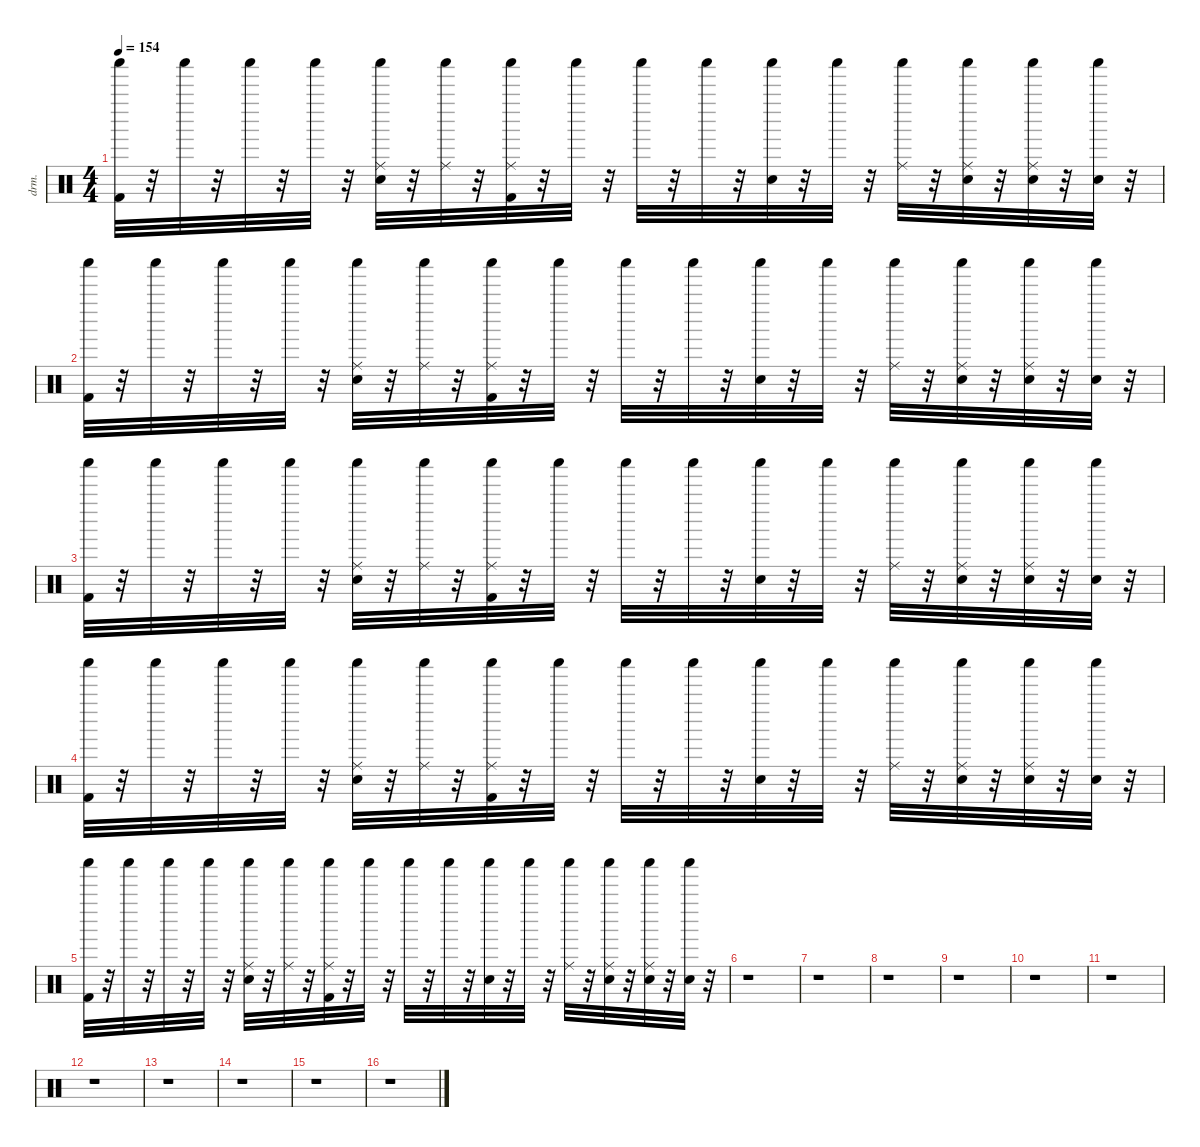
\defaultSystemsLayout 4
\hideDynamics
\bracketExtendMode nobrackets
\otherSystemsTrackNameOrientation horizontal
\track ("Percussion" "drm.") {instrument percussion}
\staff {score}
\articulation defaults
\ts (4 4)
\tempo 154
\clef neutral
\ks c
("Shaker (hit)" "Kick (hit) 2").32{dy f beam Down} r.32{beam Down} "Shaker (hit)".32{beam Down} r.32{beam Down} "Shaker (hit)".32{beam Down} r.32{beam Down} "Shaker (hit)".32{beam Down} r.32{beam Down} ("Shaker (hit)" "Snare (hit) 2" "Ride (middle)").32{beam Down} r.32{beam Down} ("Shaker (hit)" "Ride (middle)").32{beam Down} r.32{beam Down} ("Shaker (hit)" "Kick (hit) 2" "Ride (middle)").32{beam Down} r.32{beam Down} "Shaker (hit)".32{beam Down} r.32{beam Down} "Shaker (hit)".32{beam Down} r.32{beam Down} "Shaker (hit)".32{beam Down} r.32{beam Down} ("Shaker (hit)" "Snare (hit) 2").32{beam Down} r.32{beam Down} "Shaker (hit)".32{beam Down} r.32{beam Down} ("Shaker (hit)" "Ride (middle)").32{beam Down} r.32{beam Down} ("Shaker (hit)" "Snare (hit) 2" "Ride (middle)").32{beam Down} r.32{beam Down} ("Shaker (hit)" "Snare (hit) 2" "Ride (middle)").32{beam Down} r.32{beam Down} ("Shaker (hit)" "Snare (hit) 2").32{beam Down} r.32{beam Down} |
("Shaker (hit)" "Kick (hit) 2").32{beam Down} r.32{beam Down} "Shaker (hit)".32{beam Down} r.32{beam Down} "Shaker (hit)".32{beam Down} r.32{beam Down} "Shaker (hit)".32{beam Down} r.32{beam Down} ("Shaker (hit)" "Snare (hit) 2" "Ride (middle)").32{beam Down} r.32{beam Down} ("Shaker (hit)" "Ride (middle)").32{beam Down} r.32{beam Down} ("Shaker (hit)" "Kick (hit) 2" "Ride (middle)").32{beam Down} r.32{beam Down} "Shaker (hit)".32{beam Down} r.32{beam Down} "Shaker (hit)".32{beam Down} r.32{beam Down} "Shaker (hit)".32{beam Down} r.32{beam Down} ("Shaker (hit)" "Snare (hit) 2").32{beam Down} r.32{beam Down} "Shaker (hit)".32{beam Down} r.32{beam Down} ("Shaker (hit)" "Ride (middle)").32{beam Down} r.32{beam Down} ("Shaker (hit)" "Snare (hit) 2" "Ride (middle)").32{beam Down} r.32{beam Down} ("Shaker (hit)" "Snare (hit) 2" "Ride (middle)").32{beam Down} r.32{beam Down} ("Shaker (hit)" "Snare (hit) 2").32{beam Down} r.32{beam Down} |
("Shaker (hit)" "Kick (hit) 2").32{beam Down} r.32{beam Down} "Shaker (hit)".32{beam Down} r.32{beam Down} "Shaker (hit)".32{beam Down} r.32{beam Down} "Shaker (hit)".32{beam Down} r.32{beam Down} ("Shaker (hit)" "Snare (hit) 2" "Ride (middle)").32{beam Down} r.32{beam Down} ("Shaker (hit)" "Ride (middle)").32{beam Down} r.32{beam Down} ("Shaker (hit)" "Kick (hit) 2" "Ride (middle)").32{beam Down} r.32{beam Down} "Shaker (hit)".32{beam Down} r.32{beam Down} "Shaker (hit)".32{beam Down} r.32{beam Down} "Shaker (hit)".32{beam Down} r.32{beam Down} ("Shaker (hit)" "Snare (hit) 2").32{beam Down} r.32{beam Down} "Shaker (hit)".32{beam Down} r.32{beam Down} ("Shaker (hit)" "Ride (middle)").32{beam Down} r.32{beam Down} ("Shaker (hit)" "Snare (hit) 2" "Ride (middle)").32{beam Down} r.32{beam Down} ("Shaker (hit)" "Snare (hit) 2" "Ride (middle)").32{beam Down} r.32{beam Down} ("Shaker (hit)" "Snare (hit) 2").32{beam Down} r.32{beam Down} |
("Shaker (hit)" "Kick (hit) 2").32{beam Down} r.32{beam Down} "Shaker (hit)".32{beam Down} r.32{beam Down} "Shaker (hit)".32{beam Down} r.32{beam Down} "Shaker (hit)".32{beam Down} r.32{beam Down} ("Shaker (hit)" "Snare (hit) 2" "Ride (middle)").32{beam Down} r.32{beam Down} ("Shaker (hit)" "Ride (middle)").32{beam Down} r.32{beam Down} ("Shaker (hit)" "Kick (hit) 2" "Ride (middle)").32{beam Down} r.32{beam Down} "Shaker (hit)".32{beam Down} r.32{beam Down} "Shaker (hit)".32{beam Down} r.32{beam Down} "Shaker (hit)".32{beam Down} r.32{beam Down} ("Shaker (hit)" "Snare (hit) 2").32{beam Down} r.32{beam Down} "Shaker (hit)".32{beam Down} r.32{beam Down} ("Shaker (hit)" "Ride (middle)").32{beam Down} r.32{beam Down} ("Shaker (hit)" "Snare (hit) 2" "Ride (middle)").32{beam Down} r.32{beam Down} ("Shaker (hit)" "Snare (hit) 2" "Ride (middle)").32{beam Down} r.32{beam Down} ("Shaker (hit)" "Snare (hit) 2").32{beam Down} r.32{beam Down} |
("Shaker (hit)" "Kick (hit) 2").32{beam Down} r.32{beam Down} "Shaker (hit)".32{beam Down} r.32{beam Down} "Shaker (hit)".32{beam Down} r.32{beam Down} "Shaker (hit)".32{beam Down} r.32{beam Down} ("Shaker (hit)" "Snare (hit) 2" "Ride (middle)").32{beam Down} r.32{beam Down} ("Shaker (hit)" "Ride (middle)").32{beam Down} r.32{beam Down} ("Shaker (hit)" "Kick (hit) 2" "Ride (middle)").32{beam Down} r.32{beam Down} "Shaker (hit)".32{beam Down} r.32{beam Down} "Shaker (hit)".32{beam Down} r.32{beam Down} "Shaker (hit)".32{beam Down} r.32{beam Down} ("Shaker (hit)" "Snare (hit) 2").32{beam Down} r.32{beam Down} "Shaker (hit)".32{beam Down} r.32{beam Down} ("Shaker (hit)" "Ride (middle)").32{beam Down} r.32{beam Down} ("Shaker (hit)" "Snare (hit) 2" "Ride (middle)").32{beam Down} r.32{beam Down} ("Shaker (hit)" "Snare (hit) 2" "Ride (middle)").32{beam Down} r.32{beam Down} ("Shaker (hit)" "Snare (hit) 2").32{beam Down} r.32{beam Down} |
r.1{beam Down} |
r.1{beam Down} |
r.1{beam Down} |
r.1{beam Down} |
r.1{beam Down} |
r.1{beam Down} |
r.1{beam Down} |
r.1{beam Down} |
r.1{beam Down} |
r.1{beam Down} |
r.1{beam Down}
